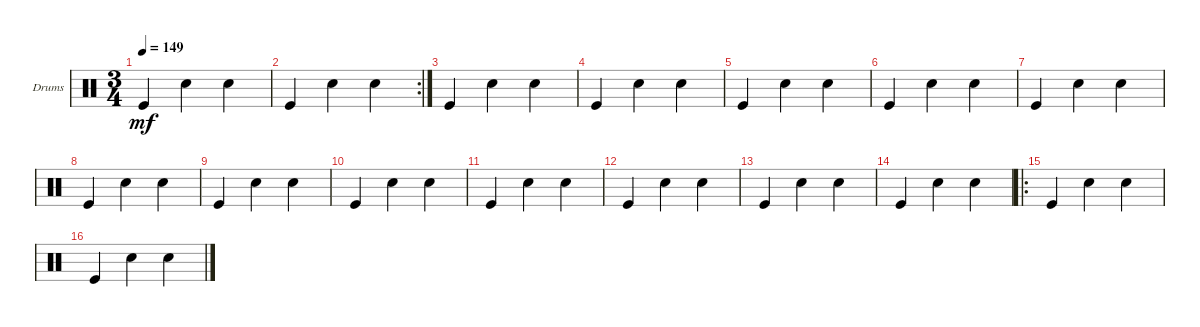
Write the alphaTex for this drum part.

\defaultSystemsLayout 4
\bracketExtendMode groupsimilarinstruments
\firstSystemTrackNameOrientation horizontal
\otherSystemsTrackNameOrientation horizontal
\chordDiagramsInScore
\track ("Drumkit" "Drums") {instrument percussion}
\staff {score}
\articulation defaults
\ts (3 4)
\tempo 149
\clef neutral
\ks c "Kick (hit)".4{dy mf} "Snare (hit) 2".4 "Snare (hit) 2".4
|
\rc 2 "Kick (hit)".4 "Snare (hit) 2".4 "Snare (hit) 2".4
|
"Kick (hit)".4 "Snare (hit) 2".4 "Snare (hit) 2".4 |
"Kick (hit)".4 "Snare (hit) 2".4 "Snare (hit) 2".4 |
"Kick (hit)".4 "Snare (hit) 2".4 "Snare (hit) 2".4 |
"Kick (hit)".4 "Snare (hit) 2".4 "Snare (hit) 2".4 |
"Kick (hit)".4 "Snare (hit) 2".4 "Snare (hit) 2".4 |
"Kick (hit)".4 "Snare (hit) 2".4 "Snare (hit) 2".4 |
"Kick (hit)".4 "Snare (hit) 2".4 "Snare (hit) 2".4 |
"Kick (hit)".4 "Snare (hit) 2".4 "Snare (hit) 2".4 |
"Kick (hit)".4 "Snare (hit) 2".4 "Snare (hit) 2".4 |
"Kick (hit)".4 "Snare (hit) 2".4 "Snare (hit) 2".4 |
"Kick (hit)".4 "Snare (hit) 2".4 "Snare (hit) 2".4 |
"Kick (hit)".4 "Snare (hit) 2".4 "Snare (hit) 2".4 |
\ro "Kick (hit)".4 "Snare (hit) 2".4 "Snare (hit) 2".4
|
"Kick (hit)".4 "Snare (hit) 2".4 "Snare (hit) 2".4
